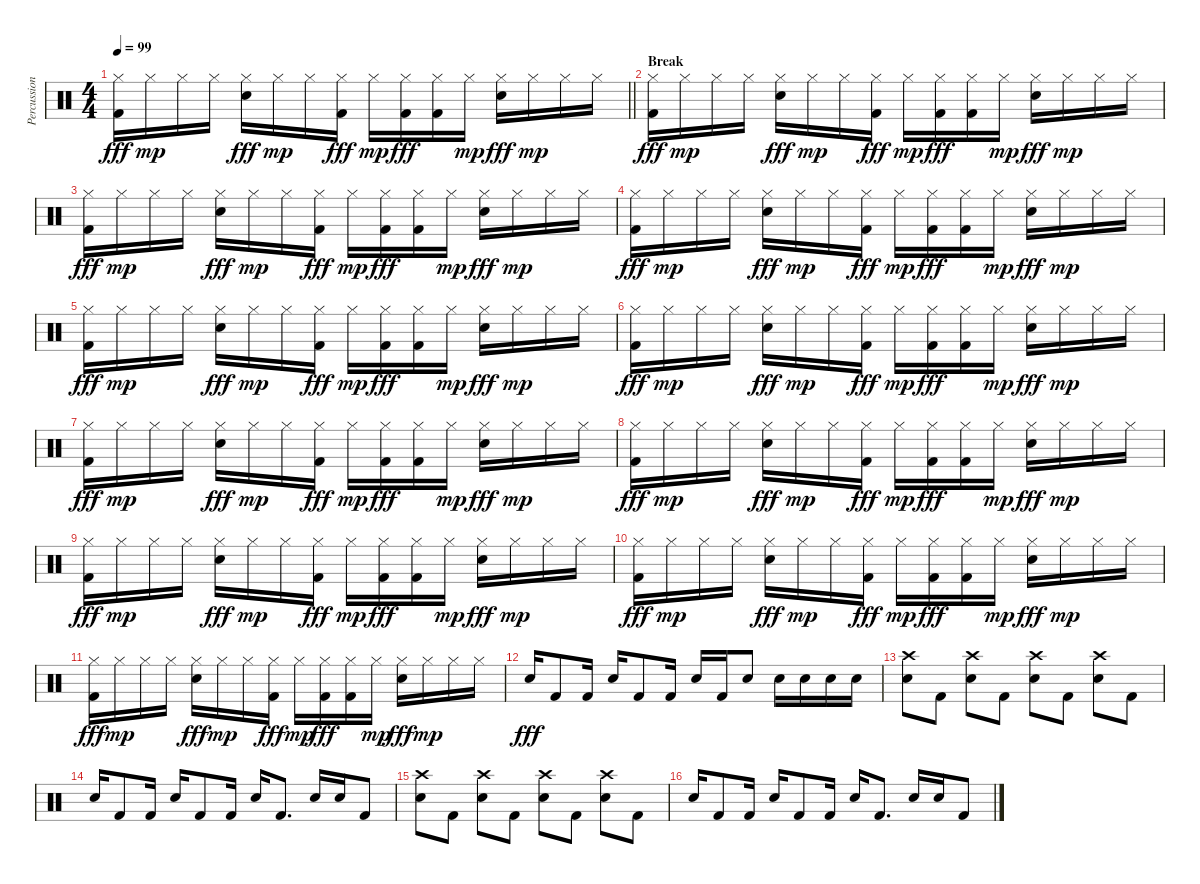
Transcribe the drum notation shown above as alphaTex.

\track ("Percussion" "Percussion") {instrument percussion}
\staff {score}
\articulation defaults
\ts (4 4)
\tempo 99
\clef neutral
\barLineRight lightlight
\ks c
("Hi-Hat (closed)" "Kick (hit) 2").16{dy fff} "Hi-Hat (closed)".16{dy mp} "Hi-Hat (closed)".16 "Hi-Hat (closed)".16 ("Hi-Hat (closed)" "Snare (hit) 2").16{dy fff} "Hi-Hat (closed)".16{dy mp} "Hi-Hat (closed)".16 ("Hi-Hat (closed)" "Kick (hit) 2").16{dy fff} "Hi-Hat (closed)".16{dy mp} ("Hi-Hat (closed)" "Kick (hit) 2").16{dy fff} ("Hi-Hat (closed)" "Kick (hit) 2").16 "Hi-Hat (closed)".16{dy mp} ("Hi-Hat (closed)" "Snare (hit) 2").16{dy fff} "Hi-Hat (closed)".16{dy mp} "Hi-Hat (closed)".16 "Hi-Hat (closed)".16 |
\section ("" "Break")
("Hi-Hat (closed)" "Kick (hit) 2").16{dy fff} "Hi-Hat (closed)".16{dy mp} "Hi-Hat (closed)".16 "Hi-Hat (closed)".16 ("Hi-Hat (closed)" "Snare (hit) 2").16{dy fff} "Hi-Hat (closed)".16{dy mp} "Hi-Hat (closed)".16 ("Hi-Hat (closed)" "Kick (hit) 2").16{dy fff} "Hi-Hat (closed)".16{dy mp} ("Hi-Hat (closed)" "Kick (hit) 2").16{dy fff} ("Hi-Hat (closed)" "Kick (hit) 2").16 "Hi-Hat (closed)".16{dy mp} ("Hi-Hat (closed)" "Snare (hit) 2").16{dy fff} "Hi-Hat (closed)".16{dy mp} "Hi-Hat (closed)".16 "Hi-Hat (closed)".16 |
("Hi-Hat (closed)" "Kick (hit) 2").16{dy fff} "Hi-Hat (closed)".16{dy mp} "Hi-Hat (closed)".16 "Hi-Hat (closed)".16 ("Hi-Hat (closed)" "Snare (hit) 2").16{dy fff} "Hi-Hat (closed)".16{dy mp} "Hi-Hat (closed)".16 ("Hi-Hat (closed)" "Kick (hit) 2").16{dy fff} "Hi-Hat (closed)".16{dy mp} ("Hi-Hat (closed)" "Kick (hit) 2").16{dy fff} ("Hi-Hat (closed)" "Kick (hit) 2").16 "Hi-Hat (closed)".16{dy mp} ("Hi-Hat (closed)" "Snare (hit) 2").16{dy fff} "Hi-Hat (closed)".16{dy mp} "Hi-Hat (closed)".16 "Hi-Hat (closed)".16 |
("Hi-Hat (closed)" "Kick (hit) 2").16{dy fff} "Hi-Hat (closed)".16{dy mp} "Hi-Hat (closed)".16 "Hi-Hat (closed)".16 ("Hi-Hat (closed)" "Snare (hit) 2").16{dy fff} "Hi-Hat (closed)".16{dy mp} "Hi-Hat (closed)".16 ("Hi-Hat (closed)" "Kick (hit) 2").16{dy fff} "Hi-Hat (closed)".16{dy mp} ("Hi-Hat (closed)" "Kick (hit) 2").16{dy fff} ("Hi-Hat (closed)" "Kick (hit) 2").16 "Hi-Hat (closed)".16{dy mp} ("Hi-Hat (closed)" "Snare (hit) 2").16{dy fff} "Hi-Hat (closed)".16{dy mp} "Hi-Hat (closed)".16 "Hi-Hat (closed)".16 |
("Hi-Hat (closed)" "Kick (hit) 2").16{dy fff} "Hi-Hat (closed)".16{dy mp} "Hi-Hat (closed)".16 "Hi-Hat (closed)".16 ("Hi-Hat (closed)" "Snare (hit) 2").16{dy fff} "Hi-Hat (closed)".16{dy mp} "Hi-Hat (closed)".16 ("Hi-Hat (closed)" "Kick (hit) 2").16{dy fff} "Hi-Hat (closed)".16{dy mp} ("Hi-Hat (closed)" "Kick (hit) 2").16{dy fff} ("Hi-Hat (closed)" "Kick (hit) 2").16 "Hi-Hat (closed)".16{dy mp} ("Hi-Hat (closed)" "Snare (hit) 2").16{dy fff} "Hi-Hat (closed)".16{dy mp} "Hi-Hat (closed)".16 "Hi-Hat (closed)".16 |
("Hi-Hat (closed)" "Kick (hit) 2").16{dy fff} "Hi-Hat (closed)".16{dy mp} "Hi-Hat (closed)".16 "Hi-Hat (closed)".16 ("Hi-Hat (closed)" "Snare (hit) 2").16{dy fff} "Hi-Hat (closed)".16{dy mp} "Hi-Hat (closed)".16 ("Hi-Hat (closed)" "Kick (hit) 2").16{dy fff} "Hi-Hat (closed)".16{dy mp} ("Hi-Hat (closed)" "Kick (hit) 2").16{dy fff} ("Hi-Hat (closed)" "Kick (hit) 2").16 "Hi-Hat (closed)".16{dy mp} ("Hi-Hat (closed)" "Snare (hit) 2").16{dy fff} "Hi-Hat (closed)".16{dy mp} "Hi-Hat (closed)".16 "Hi-Hat (closed)".16 |
("Hi-Hat (closed)" "Kick (hit) 2").16{dy fff} "Hi-Hat (closed)".16{dy mp} "Hi-Hat (closed)".16 "Hi-Hat (closed)".16 ("Hi-Hat (closed)" "Snare (hit) 2").16{dy fff} "Hi-Hat (closed)".16{dy mp} "Hi-Hat (closed)".16 ("Hi-Hat (closed)" "Kick (hit) 2").16{dy fff} "Hi-Hat (closed)".16{dy mp} ("Hi-Hat (closed)" "Kick (hit) 2").16{dy fff} ("Hi-Hat (closed)" "Kick (hit) 2").16 "Hi-Hat (closed)".16{dy mp} ("Hi-Hat (closed)" "Snare (hit) 2").16{dy fff} "Hi-Hat (closed)".16{dy mp} "Hi-Hat (closed)".16 "Hi-Hat (closed)".16 |
("Hi-Hat (closed)" "Kick (hit) 2").16{dy fff} "Hi-Hat (closed)".16{dy mp} "Hi-Hat (closed)".16 "Hi-Hat (closed)".16 ("Hi-Hat (closed)" "Snare (hit) 2").16{dy fff} "Hi-Hat (closed)".16{dy mp} "Hi-Hat (closed)".16 ("Hi-Hat (closed)" "Kick (hit) 2").16{dy fff} "Hi-Hat (closed)".16{dy mp} ("Hi-Hat (closed)" "Kick (hit) 2").16{dy fff} ("Hi-Hat (closed)" "Kick (hit) 2").16 "Hi-Hat (closed)".16{dy mp} ("Hi-Hat (closed)" "Snare (hit) 2").16{dy fff} "Hi-Hat (closed)".16{dy mp} "Hi-Hat (closed)".16 "Hi-Hat (closed)".16 |
("Hi-Hat (closed)" "Kick (hit) 2").16{dy fff} "Hi-Hat (closed)".16{dy mp} "Hi-Hat (closed)".16 "Hi-Hat (closed)".16 ("Hi-Hat (closed)" "Snare (hit) 2").16{dy fff} "Hi-Hat (closed)".16{dy mp} "Hi-Hat (closed)".16 ("Hi-Hat (closed)" "Kick (hit) 2").16{dy fff} "Hi-Hat (closed)".16{dy mp} ("Hi-Hat (closed)" "Kick (hit) 2").16{dy fff} ("Hi-Hat (closed)" "Kick (hit) 2").16 "Hi-Hat (closed)".16{dy mp} ("Hi-Hat (closed)" "Snare (hit) 2").16{dy fff} "Hi-Hat (closed)".16{dy mp} "Hi-Hat (closed)".16 "Hi-Hat (closed)".16 |
("Hi-Hat (closed)" "Kick (hit) 2").16{dy fff} "Hi-Hat (closed)".16{dy mp} "Hi-Hat (closed)".16 "Hi-Hat (closed)".16 ("Hi-Hat (closed)" "Snare (hit) 2").16{dy fff} "Hi-Hat (closed)".16{dy mp} "Hi-Hat (closed)".16 ("Hi-Hat (closed)" "Kick (hit) 2").16{dy fff} "Hi-Hat (closed)".16{dy mp} ("Hi-Hat (closed)" "Kick (hit) 2").16{dy fff} ("Hi-Hat (closed)" "Kick (hit) 2").16 "Hi-Hat (closed)".16{dy mp} ("Hi-Hat (closed)" "Snare (hit) 2").16{dy fff} "Hi-Hat (closed)".16{dy mp} "Hi-Hat (closed)".16 "Hi-Hat (closed)".16 |
("Hi-Hat (closed)" "Kick (hit) 2").16{dy fff} "Hi-Hat (closed)".16{dy mp} "Hi-Hat (closed)".16 "Hi-Hat (closed)".16 ("Hi-Hat (closed)" "Snare (hit) 2").16{dy fff} "Hi-Hat (closed)".16{dy mp} "Hi-Hat (closed)".16 ("Hi-Hat (closed)" "Kick (hit) 2").16{dy fff} "Hi-Hat (closed)".16{dy mp} ("Hi-Hat (closed)" "Kick (hit) 2").16{dy fff} ("Hi-Hat (closed)" "Kick (hit) 2").16 "Hi-Hat (closed)".16{dy mp} ("Hi-Hat (closed)" "Snare (hit) 2").16{dy fff} "Hi-Hat (closed)".16{dy mp} "Hi-Hat (closed)".16 "Hi-Hat (closed)".16 |
"Snare (hit) 2".16{dy fff} "Kick (hit) 2".8 "Kick (hit) 2".16 "Snare (hit) 2".16 "Kick (hit) 2".8 "Kick (hit) 2".16 "Snare (hit) 2".16 "Kick (hit) 2".16 "Snare (hit) 2".8 "Snare (hit) 2".16 "Snare (hit) 2".16 "Snare (hit) 2".16 "Snare (hit) 2".16 |
("Crash high (hit)" "Snare (hit) 2").8 "Kick (hit) 2".8 ("Crash high (hit)" "Snare (hit) 2").8 "Kick (hit) 2".8 ("Crash high (hit)" "Snare (hit) 2").8 "Kick (hit) 2".8 ("Crash high (hit)" "Snare (hit) 2").8 "Kick (hit) 2".8 |
"Snare (hit) 2".16 "Kick (hit) 2".8 "Kick (hit) 2".16 "Snare (hit) 2".16 "Kick (hit) 2".8 "Kick (hit) 2".16 "Snare (hit) 2".16 "Kick (hit) 2".8{d} "Snare (hit) 2".16 "Snare (hit) 2".16 "Kick (hit) 2".8 |
("Crash high (hit)" "Snare (hit) 2").8 "Kick (hit) 2".8 ("Crash high (hit)" "Snare (hit) 2").8 "Kick (hit) 2".8 ("Crash high (hit)" "Snare (hit) 2").8 "Kick (hit) 2".8 ("Crash high (hit)" "Snare (hit) 2").8 "Kick (hit) 2".8 |
"Snare (hit) 2".16 "Kick (hit) 2".8 "Kick (hit) 2".16 "Snare (hit) 2".16 "Kick (hit) 2".8 "Kick (hit) 2".16 "Snare (hit) 2".16 "Kick (hit) 2".8{d} "Snare (hit) 2".16 "Snare (hit) 2".16 "Kick (hit) 2".8
